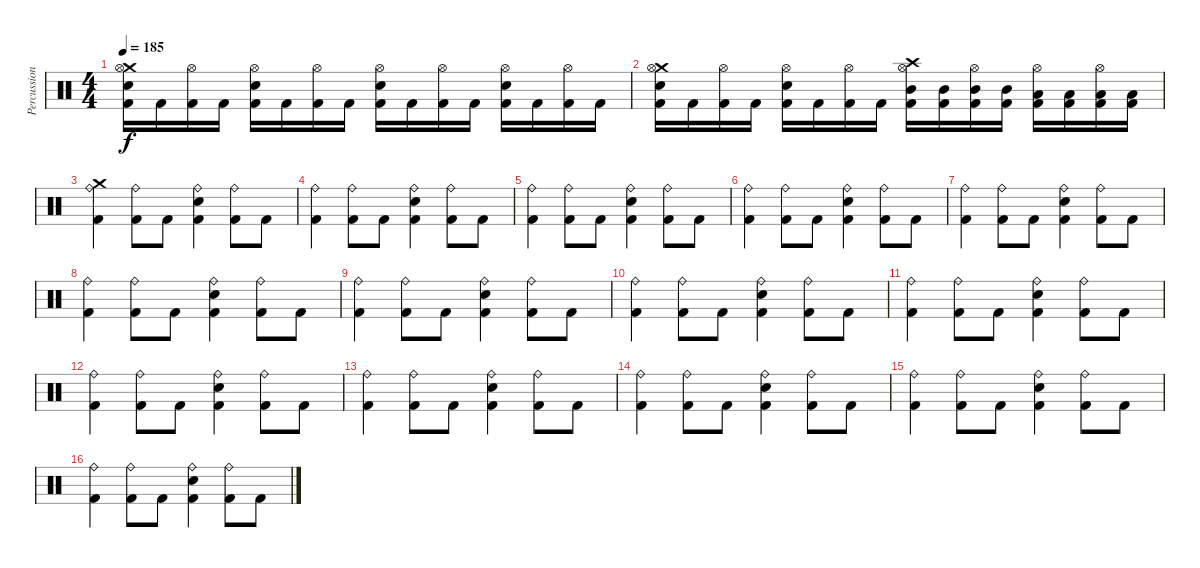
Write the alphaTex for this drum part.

\track ("Percussion" "Percussion") {instrument percussion}
\staff {score}
\articulation defaults
\ts (4 4)
\tempo 185
\clef neutral
\ks c
("Crash medium (hit)" "Hi-Hat (open)" "Electric Snare (hit)" "Kick (hit) 2").16{dy f} "Kick (hit) 2".16 ("Hi-Hat (open)" "Kick (hit) 2").16 "Kick (hit) 2".16 ("Hi-Hat (open)" "Electric Snare (hit)" "Kick (hit) 2").16 "Kick (hit) 2".16 ("Hi-Hat (open)" "Kick (hit) 2").16 "Kick (hit) 2".16 ("Hi-Hat (open)" "Electric Snare (hit)" "Kick (hit) 2").16 "Kick (hit) 2".16 ("Hi-Hat (open)" "Kick (hit) 2").16 "Kick (hit) 2".16 ("Hi-Hat (open)" "Electric Snare (hit)" "Kick (hit) 2").16 "Kick (hit) 2".16 ("Hi-Hat (open)" "Kick (hit) 2").16 "Kick (hit) 2".16 |
("Crash medium (hit)" "Hi-Hat (open)" "Electric Snare (hit)" "Kick (hit) 2").16 "Kick (hit) 2".16 ("Hi-Hat (open)" "Kick (hit) 2").16 "Kick (hit) 2".16 ("Hi-Hat (open)" "Electric Snare (hit)" "Kick (hit) 2").16 "Kick (hit) 2".16 ("Hi-Hat (open)" "Kick (hit) 2").16 "Kick (hit) 2".16 ("Crash high (hit)" "Hi-Hat (open)" "Mid Tom (hit)" "Kick (hit) 2").16 ("Mid Tom (hit)" "Kick (hit) 2").16 ("Hi-Hat (open)" "Mid Tom (hit)" "Kick (hit) 2").16 ("Mid Tom (hit)" "Kick (hit) 2").16 ("Hi-Hat (open)" "Low Tom (hit)" "Kick (hit) 2").16 ("Low Tom (hit)" "Kick (hit) 2").16 ("Hi-Hat (open)" "Low Tom (hit)" "Kick (hit) 2").16 ("Low Tom (hit)" "Kick (hit) 2").16 |
("Crash medium (hit)" "Ride (bell)" "Kick (hit) 2").4 ("Ride (bell)" "Kick (hit) 2").8 "Kick (hit) 2".8 ("Ride (bell)" "Electric Snare (hit)" "Kick (hit) 2").4 ("Ride (bell)" "Kick (hit) 2").8 "Kick (hit) 2".8 |
("Ride (bell)" "Kick (hit) 2").4 ("Ride (bell)" "Kick (hit) 2").8 "Kick (hit) 2".8 ("Ride (bell)" "Electric Snare (hit)" "Kick (hit) 2").4 ("Ride (bell)" "Kick (hit) 2").8 "Kick (hit) 2".8 |
("Ride (bell)" "Kick (hit) 2").4 ("Ride (bell)" "Kick (hit) 2").8 "Kick (hit) 2".8 ("Ride (bell)" "Electric Snare (hit)" "Kick (hit) 2").4 ("Ride (bell)" "Kick (hit) 2").8 "Kick (hit) 2".8 |
("Ride (bell)" "Kick (hit) 2").4 ("Ride (bell)" "Kick (hit) 2").8 "Kick (hit) 2".8 ("Ride (bell)" "Electric Snare (hit)" "Kick (hit) 2").4 ("Ride (bell)" "Kick (hit) 2").8 "Kick (hit) 2".8 |
("Ride (bell)" "Kick (hit) 2").4 ("Ride (bell)" "Kick (hit) 2").8 "Kick (hit) 2".8 ("Ride (bell)" "Electric Snare (hit)" "Kick (hit) 2").4 ("Ride (bell)" "Kick (hit) 2").8 "Kick (hit) 2".8 |
("Ride (bell)" "Kick (hit) 2").4 ("Ride (bell)" "Kick (hit) 2").8 "Kick (hit) 2".8 ("Ride (bell)" "Electric Snare (hit)" "Kick (hit) 2").4 ("Ride (bell)" "Kick (hit) 2").8 "Kick (hit) 2".8 |
("Ride (bell)" "Kick (hit) 2").4 ("Ride (bell)" "Kick (hit) 2").8 "Kick (hit) 2".8 ("Ride (bell)" "Electric Snare (hit)" "Kick (hit) 2").4 ("Ride (bell)" "Kick (hit) 2").8 "Kick (hit) 2".8 |
("Ride (bell)" "Kick (hit) 2").4 ("Ride (bell)" "Kick (hit) 2").8 "Kick (hit) 2".8 ("Ride (bell)" "Electric Snare (hit)" "Kick (hit) 2").4 ("Ride (bell)" "Kick (hit) 2").8 "Kick (hit) 2".8 |
("Ride (bell)" "Kick (hit) 2").4 ("Ride (bell)" "Kick (hit) 2").8 "Kick (hit) 2".8 ("Ride (bell)" "Electric Snare (hit)" "Kick (hit) 2").4 ("Ride (bell)" "Kick (hit) 2").8 "Kick (hit) 2".8 |
("Ride (bell)" "Kick (hit) 2").4 ("Ride (bell)" "Kick (hit) 2").8 "Kick (hit) 2".8 ("Ride (bell)" "Electric Snare (hit)" "Kick (hit) 2").4 ("Ride (bell)" "Kick (hit) 2").8 "Kick (hit) 2".8 |
("Ride (bell)" "Kick (hit) 2").4 ("Ride (bell)" "Kick (hit) 2").8 "Kick (hit) 2".8 ("Ride (bell)" "Electric Snare (hit)" "Kick (hit) 2").4 ("Ride (bell)" "Kick (hit) 2").8 "Kick (hit) 2".8 |
("Ride (bell)" "Kick (hit) 2").4 ("Ride (bell)" "Kick (hit) 2").8 "Kick (hit) 2".8 ("Ride (bell)" "Electric Snare (hit)" "Kick (hit) 2").4 ("Ride (bell)" "Kick (hit) 2").8 "Kick (hit) 2".8 |
("Ride (bell)" "Kick (hit) 2").4 ("Ride (bell)" "Kick (hit) 2").8 "Kick (hit) 2".8 ("Ride (bell)" "Electric Snare (hit)" "Kick (hit) 2").4 ("Ride (bell)" "Kick (hit) 2").8 "Kick (hit) 2".8 |
("Ride (bell)" "Kick (hit) 2").4 ("Ride (bell)" "Kick (hit) 2").8 "Kick (hit) 2".8 ("Ride (bell)" "Electric Snare (hit)" "Kick (hit) 2").4 ("Ride (bell)" "Kick (hit) 2").8 "Kick (hit) 2".8
